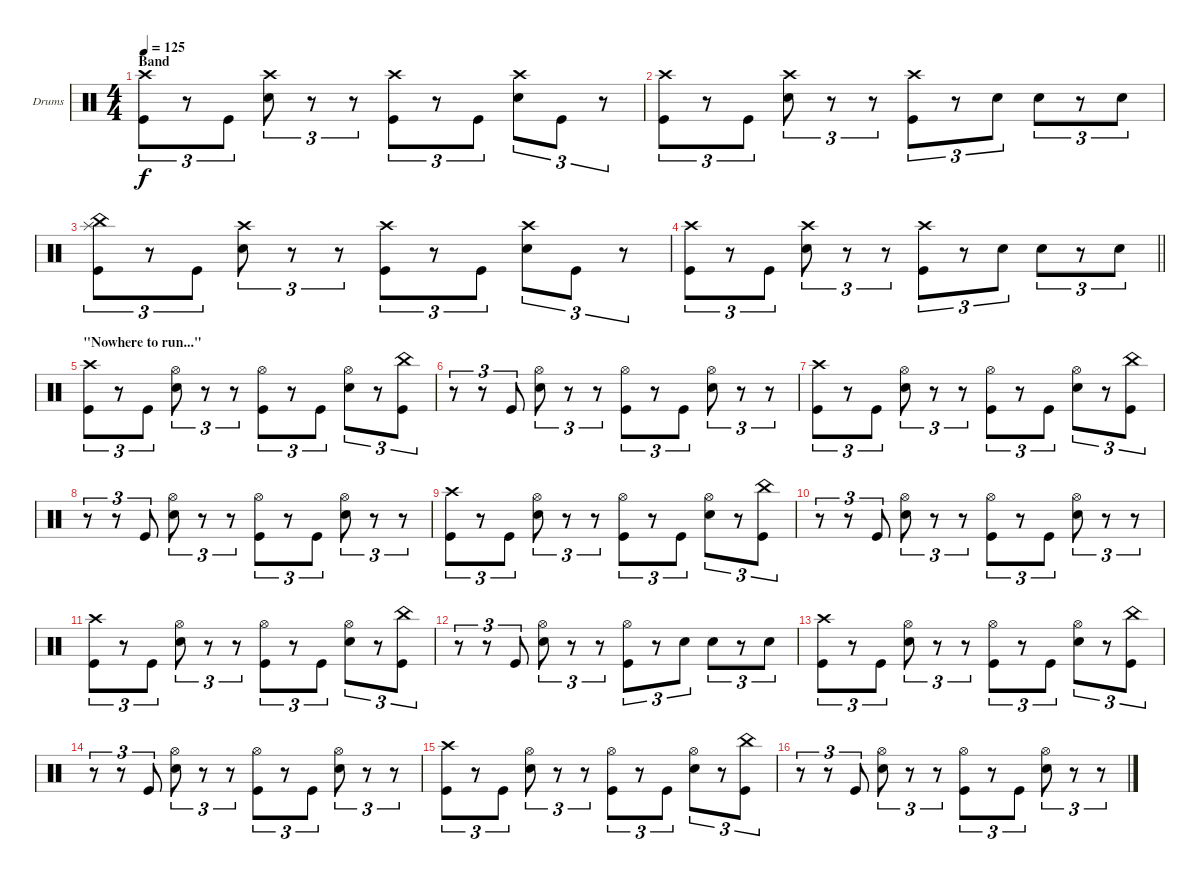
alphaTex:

\bracketExtendMode groupsimilarinstruments
\firstSystemTrackNameOrientation horizontal
\otherSystemsTrackNameOrientation horizontal
\track ("Drumkit" "Drums") {instrument percussion}
\staff {score}
\articulation defaults
\ts (4 4)
\section ("" "Band")
\tempo 125
\clef neutral
\ks c
("Crash high (hit)" "Kick (hit)").8{tu (3 2) dy f} r.8{tu (3 2)} "Kick (hit)".8{tu (3 2)} ("Crash high (hit)" "Snare (hit) 2").8{tu (3 2)} r.8{tu (3 2)} r.8{tu (3 2)} ("Crash high (hit)" "Kick (hit)").8{tu (3 2)} r.8{tu (3 2)} "Kick (hit)".8{tu (3 2)} ("Crash high (hit)" "Snare (hit) 2").8{tu (3 2)} "Kick (hit)".8{tu (3 2)} r.8{tu (3 2)} |
("Crash high (hit)" "Kick (hit)").8{tu (3 2)} r.8{tu (3 2)} "Kick (hit)".8{tu (3 2)} ("Crash high (hit)" "Snare (hit) 2").8{tu (3 2)} r.8{tu (3 2)} r.8{tu (3 2)} ("Crash high (hit)" "Kick (hit)").8{tu (3 2)} r.8{tu (3 2)} "Snare (hit) 2".8{tu (3 2)} "Snare (hit) 2".8{tu (3 2)} r.8{tu (3 2)} "Snare (hit) 2".8{tu (3 2)} |
("Splash (hit)" "China (hit)" "Kick (hit)").8{tu (3 2)} r.8{tu (3 2)} "Kick (hit)".8{tu (3 2)} ("Crash high (hit)" "Snare (hit) 2").8{tu (3 2)} r.8{tu (3 2)} r.8{tu (3 2)} ("Crash high (hit)" "Kick (hit)").8{tu (3 2)} r.8{tu (3 2)} "Kick (hit)".8{tu (3 2)} ("Crash high (hit)" "Snare (hit) 2").8{tu (3 2)} "Kick (hit)".8{tu (3 2)} r.8{tu (3 2)} |
\barLineRight lightlight
("Crash high (hit)" "Kick (hit)").8{tu (3 2)} r.8{tu (3 2)} "Kick (hit)".8{tu (3 2)} ("Crash high (hit)" "Snare (hit) 2").8{tu (3 2)} r.8{tu (3 2)} r.8{tu (3 2)} ("Crash high (hit)" "Kick (hit)").8{tu (3 2)} r.8{tu (3 2)} "Snare (hit) 2".8{tu (3 2)} "Snare (hit) 2".8{tu (3 2)} r.8{tu (3 2)} "Snare (hit) 2".8{tu (3 2)} |
\section ("" "\"Nowhere to run...\"")
("Crash high (hit)" "Kick (hit)").8{tu (3 2)} r.8{tu (3 2)} "Kick (hit)".8{tu (3 2)} ("Hi-Hat (open)" "Snare (hit) 2").8{tu (3 2)} r.8{tu (3 2)} r.8{tu (3 2)} ("Hi-Hat (open)" "Kick (hit)").8{tu (3 2)} r.8{tu (3 2)} "Kick (hit)".8{tu (3 2)} ("Hi-Hat (open)" "Snare (hit) 2").8{tu (3 2)} r.8{tu (3 2)} ("China (hit)" "Kick (hit)").8{tu (3 2)} |
r.8{tu (3 2)} r.8{tu (3 2)} "Kick (hit)".8{tu (3 2)} ("Hi-Hat (open)" "Snare (hit) 2").8{tu (3 2)} r.8{tu (3 2)} r.8{tu (3 2)} ("Hi-Hat (open)" "Kick (hit)").8{tu (3 2)} r.8{tu (3 2)} "Kick (hit)".8{tu (3 2)} ("Hi-Hat (open)" "Snare (hit) 2").8{tu (3 2)} r.8{tu (3 2)} r.8{tu (3 2)} |
("Crash high (hit)" "Kick (hit)").8{tu (3 2)} r.8{tu (3 2)} "Kick (hit)".8{tu (3 2)} ("Hi-Hat (open)" "Snare (hit) 2").8{tu (3 2)} r.8{tu (3 2)} r.8{tu (3 2)} ("Hi-Hat (open)" "Kick (hit)").8{tu (3 2)} r.8{tu (3 2)} "Kick (hit)".8{tu (3 2)} ("Hi-Hat (open)" "Snare (hit) 2").8{tu (3 2)} r.8{tu (3 2)} ("China (hit)" "Kick (hit)").8{tu (3 2)} |
r.8{tu (3 2)} r.8{tu (3 2)} "Kick (hit)".8{tu (3 2)} ("Hi-Hat (open)" "Snare (hit) 2").8{tu (3 2)} r.8{tu (3 2)} r.8{tu (3 2)} ("Hi-Hat (open)" "Kick (hit)").8{tu (3 2)} r.8{tu (3 2)} "Kick (hit)".8{tu (3 2)} ("Hi-Hat (open)" "Snare (hit) 2").8{tu (3 2)} r.8{tu (3 2)} r.8{tu (3 2)} |
("Crash high (hit)" "Kick (hit)").8{tu (3 2)} r.8{tu (3 2)} "Kick (hit)".8{tu (3 2)} ("Hi-Hat (open)" "Snare (hit) 2").8{tu (3 2)} r.8{tu (3 2)} r.8{tu (3 2)} ("Hi-Hat (open)" "Kick (hit)").8{tu (3 2)} r.8{tu (3 2)} "Kick (hit)".8{tu (3 2)} ("Hi-Hat (open)" "Snare (hit) 2").8{tu (3 2)} r.8{tu (3 2)} ("China (hit)" "Kick (hit)").8{tu (3 2)} |
r.8{tu (3 2)} r.8{tu (3 2)} "Kick (hit)".8{tu (3 2)} ("Hi-Hat (open)" "Snare (hit) 2").8{tu (3 2)} r.8{tu (3 2)} r.8{tu (3 2)} ("Hi-Hat (open)" "Kick (hit)").8{tu (3 2)} r.8{tu (3 2)} "Kick (hit)".8{tu (3 2)} ("Hi-Hat (open)" "Snare (hit) 2").8{tu (3 2)} r.8{tu (3 2)} r.8{tu (3 2)} |
("Crash high (hit)" "Kick (hit)").8{tu (3 2)} r.8{tu (3 2)} "Kick (hit)".8{tu (3 2)} ("Hi-Hat (open)" "Snare (hit) 2").8{tu (3 2)} r.8{tu (3 2)} r.8{tu (3 2)} ("Hi-Hat (open)" "Kick (hit)").8{tu (3 2)} r.8{tu (3 2)} "Kick (hit)".8{tu (3 2)} ("Hi-Hat (open)" "Snare (hit) 2").8{tu (3 2)} r.8{tu (3 2)} ("China (hit)" "Kick (hit)").8{tu (3 2)} |
r.8{tu (3 2)} r.8{tu (3 2)} "Kick (hit)".8{tu (3 2)} ("Hi-Hat (open)" "Snare (hit) 2").8{tu (3 2)} r.8{tu (3 2)} r.8{tu (3 2)} ("Hi-Hat (open)" "Kick (hit)").8{tu (3 2)} r.8{tu (3 2)} "Snare (hit) 2".8{tu (3 2)} "Snare (hit) 2".8{tu (3 2)} r.8{tu (3 2)} "Snare (hit) 2".8{tu (3 2)} |
("Crash high (hit)" "Kick (hit)").8{tu (3 2)} r.8{tu (3 2)} "Kick (hit)".8{tu (3 2)} ("Hi-Hat (open)" "Snare (hit) 2").8{tu (3 2)} r.8{tu (3 2)} r.8{tu (3 2)} ("Hi-Hat (open)" "Kick (hit)").8{tu (3 2)} r.8{tu (3 2)} "Kick (hit)".8{tu (3 2)} ("Hi-Hat (open)" "Snare (hit) 2").8{tu (3 2)} r.8{tu (3 2)} ("China (hit)" "Kick (hit)").8{tu (3 2)} |
r.8{tu (3 2)} r.8{tu (3 2)} "Kick (hit)".8{tu (3 2)} ("Hi-Hat (open)" "Snare (hit) 2").8{tu (3 2)} r.8{tu (3 2)} r.8{tu (3 2)} ("Hi-Hat (open)" "Kick (hit)").8{tu (3 2)} r.8{tu (3 2)} "Kick (hit)".8{tu (3 2)} ("Hi-Hat (open)" "Snare (hit) 2").8{tu (3 2)} r.8{tu (3 2)} r.8{tu (3 2)} |
("Crash high (hit)" "Kick (hit)").8{tu (3 2)} r.8{tu (3 2)} "Kick (hit)".8{tu (3 2)} ("Hi-Hat (open)" "Snare (hit) 2").8{tu (3 2)} r.8{tu (3 2)} r.8{tu (3 2)} ("Hi-Hat (open)" "Kick (hit)").8{tu (3 2)} r.8{tu (3 2)} "Kick (hit)".8{tu (3 2)} ("Hi-Hat (open)" "Snare (hit) 2").8{tu (3 2)} r.8{tu (3 2)} ("China (hit)" "Kick (hit)").8{tu (3 2)} |
r.8{tu (3 2)} r.8{tu (3 2)} "Kick (hit)".8{tu (3 2)} ("Hi-Hat (open)" "Snare (hit) 2").8{tu (3 2)} r.8{tu (3 2)} r.8{tu (3 2)} ("Hi-Hat (open)" "Kick (hit)").8{tu (3 2)} r.8{tu (3 2)} "Kick (hit)".8{tu (3 2)} ("Hi-Hat (open)" "Snare (hit) 2").8{tu (3 2)} r.8{tu (3 2)} r.8{tu (3 2)}
